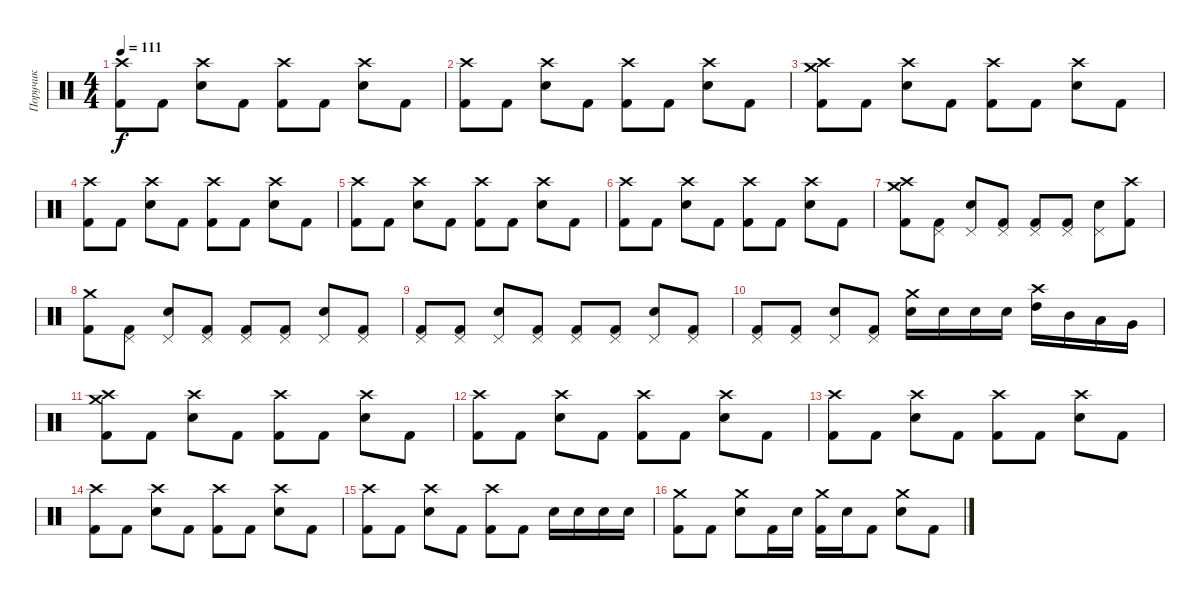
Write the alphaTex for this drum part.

\track ("Поручик" "Поручик") {instrument percussion}
\staff {score}
\articulation defaults
\ts (4 4)
\tempo 111
\clef neutral
\ks c
("Crash high (hit)" "Kick (hit) 2").8{dy f} "Kick (hit) 2".8 ("Crash high (hit)" "Electric Snare (hit)").8 "Kick (hit) 2".8 ("Crash high (hit)" "Kick (hit) 2").8 "Kick (hit) 2".8 ("Crash high (hit)" "Electric Snare (hit)").8 "Kick (hit) 2".8 |
("Crash high (hit)" "Kick (hit) 2").8 "Kick (hit) 2".8 ("Crash high (hit)" "Electric Snare (hit)").8 "Kick (hit) 2".8 ("Crash high (hit)" "Kick (hit) 2").8 "Kick (hit) 2".8 ("Crash high (hit)" "Electric Snare (hit)").8 "Kick (hit) 2".8 |
("Crash medium (hit)" "Crash high (hit)" "Kick (hit) 2").8 "Kick (hit) 2".8 ("Crash high (hit)" "Electric Snare (hit)").8 "Kick (hit) 2".8 ("Crash high (hit)" "Kick (hit) 2").8 "Kick (hit) 2".8 ("Crash high (hit)" "Electric Snare (hit)").8 "Kick (hit) 2".8 |
("Crash high (hit)" "Kick (hit) 2").8 "Kick (hit) 2".8 ("Crash high (hit)" "Electric Snare (hit)").8 "Kick (hit) 2".8 ("Crash high (hit)" "Kick (hit) 2").8 "Kick (hit) 2".8 ("Crash high (hit)" "Electric Snare (hit)").8 "Kick (hit) 2".8 |
("Crash high (hit)" "Kick (hit) 2").8 "Kick (hit) 2".8 ("Crash high (hit)" "Electric Snare (hit)").8 "Kick (hit) 2".8 ("Crash high (hit)" "Kick (hit) 2").8 "Kick (hit) 2".8 ("Crash high (hit)" "Electric Snare (hit)").8 "Kick (hit) 2".8 |
("Crash high (hit)" "Kick (hit) 2").8 "Kick (hit) 2".8 ("Crash high (hit)" "Electric Snare (hit)").8 "Kick (hit) 2".8 ("Crash high (hit)" "Kick (hit) 2").8 "Kick (hit) 2".8 ("Crash high (hit)" "Electric Snare (hit)").8 "Kick (hit) 2".8 |
("Crash medium (hit)" "Crash high (hit)" "Kick (hit) 2").8 ("Pedal Hi-Hat (hit)" "Kick (hit) 2").8 ("Pedal Hi-Hat (hit)" "Electric Snare (hit)").8 ("Pedal Hi-Hat (hit)" "Kick (hit) 2").8 ("Pedal Hi-Hat (hit)" "Kick (hit) 2").8 ("Pedal Hi-Hat (hit)" "Kick (hit) 2").8 ("Pedal Hi-Hat (hit)" "Electric Snare (hit)").8 ("Crash high (hit)" "Kick (hit) 2").8 |
("Crash medium (hit)" "Kick (hit) 2").8 ("Pedal Hi-Hat (hit)" "Kick (hit) 2").8 ("Pedal Hi-Hat (hit)" "Electric Snare (hit)").8 ("Pedal Hi-Hat (hit)" "Kick (hit) 2").8 ("Pedal Hi-Hat (hit)" "Kick (hit) 2").8 ("Pedal Hi-Hat (hit)" "Kick (hit) 2").8 ("Pedal Hi-Hat (hit)" "Electric Snare (hit)").8 ("Pedal Hi-Hat (hit)" "Kick (hit) 2").8 |
("Pedal Hi-Hat (hit)" "Kick (hit) 2").8 ("Pedal Hi-Hat (hit)" "Kick (hit) 2").8 ("Pedal Hi-Hat (hit)" "Electric Snare (hit)").8 ("Pedal Hi-Hat (hit)" "Kick (hit) 2").8 ("Pedal Hi-Hat (hit)" "Kick (hit) 2").8 ("Pedal Hi-Hat (hit)" "Kick (hit) 2").8 ("Pedal Hi-Hat (hit)" "Electric Snare (hit)").8 ("Pedal Hi-Hat (hit)" "Kick (hit) 2").8 |
("Pedal Hi-Hat (hit)" "Kick (hit) 2").8 ("Pedal Hi-Hat (hit)" "Kick (hit) 2").8 ("Pedal Hi-Hat (hit)" "Electric Snare (hit)").8 ("Pedal Hi-Hat (hit)" "Kick (hit) 2").8 ("Crash medium (hit)" "Electric Snare (hit)").16 "Electric Snare (hit)".16 "Electric Snare (hit)".16 "Electric Snare (hit)".16 ("Crash high (hit)" "High Tom (hit)").16 "Mid Tom (hit)".16 "Low Tom (hit)".16 "Very Low Tom (hit)".16 |
("Crash medium (hit)" "Crash high (hit)" "Kick (hit) 2").8 "Kick (hit) 2".8 ("Crash high (hit)" "Electric Snare (hit)").8 "Kick (hit) 2".8 ("Crash high (hit)" "Kick (hit) 2").8 "Kick (hit) 2".8 ("Crash high (hit)" "Electric Snare (hit)").8 "Kick (hit) 2".8 |
("Crash high (hit)" "Kick (hit) 2").8 "Kick (hit) 2".8 ("Crash high (hit)" "Electric Snare (hit)").8 "Kick (hit) 2".8 ("Crash high (hit)" "Kick (hit) 2").8 "Kick (hit) 2".8 ("Crash high (hit)" "Electric Snare (hit)").8 "Kick (hit) 2".8 |
("Crash high (hit)" "Kick (hit) 2").8 "Kick (hit) 2".8 ("Crash high (hit)" "Electric Snare (hit)").8 "Kick (hit) 2".8 ("Crash high (hit)" "Kick (hit) 2").8 "Kick (hit) 2".8 ("Crash high (hit)" "Electric Snare (hit)").8 "Kick (hit) 2".8 |
("Crash high (hit)" "Kick (hit) 2").8 "Kick (hit) 2".8 ("Crash high (hit)" "Electric Snare (hit)").8 "Kick (hit) 2".8 ("Crash high (hit)" "Kick (hit) 2").8 "Kick (hit) 2".8 ("Crash high (hit)" "Electric Snare (hit)").8 "Kick (hit) 2".8 |
("Crash high (hit)" "Kick (hit) 2").8 "Kick (hit) 2".8 ("Crash high (hit)" "Electric Snare (hit)").8 "Kick (hit) 2".8 ("Crash high (hit)" "Kick (hit) 2").8 "Kick (hit) 2".8 "Electric Snare (hit)".16 "Electric Snare (hit)".16 "Electric Snare (hit)".16 "Electric Snare (hit)".16 |
("Crash medium (hit)" "Kick (hit) 2").8 "Kick (hit) 2".8 ("Crash medium (hit)" "Electric Snare (hit)").8 "Kick (hit) 2".16 "Electric Snare (hit)".16 ("Crash medium (hit)" "Kick (hit) 2").16 "Electric Snare (hit)".16 "Kick (hit) 2".8 ("Crash medium (hit)" "Electric Snare (hit)").8 "Kick (hit) 2".8
